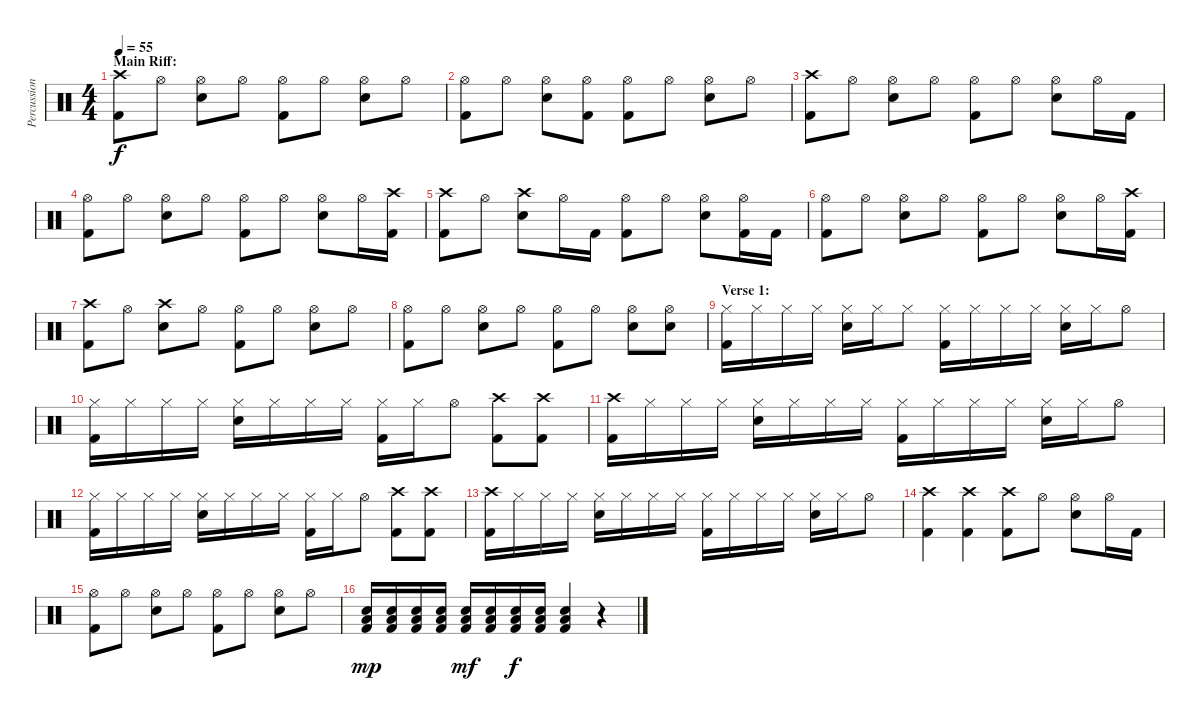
\track ("Percussion" "Percussion") {instrument percussion}
\staff {score}
\articulation defaults
\ts (4 4)
\section ("" "Main Riff:")
\tempo 55
\clef neutral
\ks c
("Crash high (hit)" "Kick (hit) 2").8{dy f} "Hi-Hat (open)".8 ("Hi-Hat (open)" "Snare (hit) 2").8 "Hi-Hat (open)".8 ("Hi-Hat (open)" "Kick (hit) 2").8 "Hi-Hat (open)".8 ("Hi-Hat (open)" "Snare (hit) 2").8 "Hi-Hat (open)".8 |
("Hi-Hat (open)" "Kick (hit) 2").8 "Hi-Hat (open)".8 ("Hi-Hat (open)" "Snare (hit) 2").8 ("Hi-Hat (open)" "Kick (hit) 2").8 ("Hi-Hat (open)" "Kick (hit) 2").8 "Hi-Hat (open)".8 ("Hi-Hat (open)" "Snare (hit) 2").8 "Hi-Hat (open)".8 |
("Crash high (hit)" "Kick (hit) 2").8 "Hi-Hat (open)".8 ("Hi-Hat (open)" "Snare (hit) 2").8 "Hi-Hat (open)".8 ("Hi-Hat (open)" "Kick (hit) 2").8 "Hi-Hat (open)".8 ("Hi-Hat (open)" "Snare (hit) 2").8 "Hi-Hat (open)".16 "Kick (hit) 2".16 |
("Hi-Hat (open)" "Kick (hit) 2").8 "Hi-Hat (open)".8 ("Hi-Hat (open)" "Snare (hit) 2").8 "Hi-Hat (open)".8 ("Hi-Hat (open)" "Kick (hit) 2").8 "Hi-Hat (open)".8 ("Hi-Hat (open)" "Snare (hit) 2").8 "Hi-Hat (open)".16 ("Crash high (hit)" "Kick (hit) 2").16 |
("Crash high (hit)" "Kick (hit) 2").8 "Hi-Hat (open)".8 ("Crash high (hit)" "Snare (hit) 2").8 "Hi-Hat (open)".16 "Kick (hit) 2".16 ("Hi-Hat (open)" "Kick (hit) 2").8 "Hi-Hat (open)".8 ("Hi-Hat (open)" "Snare (hit) 2").8 ("Hi-Hat (open)" "Kick (hit) 2").16 "Kick (hit) 2".16 |
("Hi-Hat (open)" "Kick (hit) 2").8 "Hi-Hat (open)".8 ("Hi-Hat (open)" "Snare (hit) 2").8 "Hi-Hat (open)".8 ("Hi-Hat (open)" "Kick (hit) 2").8 "Hi-Hat (open)".8 ("Hi-Hat (open)" "Snare (hit) 2").8 "Hi-Hat (open)".16 ("Crash high (hit)" "Kick (hit) 2").16 |
("Crash high (hit)" "Kick (hit) 2").8 "Hi-Hat (open)".8 ("Crash high (hit)" "Snare (hit) 2").8 "Hi-Hat (open)".8 ("Hi-Hat (open)" "Kick (hit) 2").8 "Hi-Hat (open)".8 ("Hi-Hat (open)" "Snare (hit) 2").8 "Hi-Hat (open)".8 |
("Hi-Hat (open)" "Kick (hit) 2").8 "Hi-Hat (open)".8 ("Hi-Hat (open)" "Snare (hit) 2").8 "Hi-Hat (open)".8 ("Hi-Hat (open)" "Kick (hit) 2").8 "Hi-Hat (open)".8 ("Hi-Hat (open)" "Snare (hit) 2").8 ("Hi-Hat (open)" "Snare (hit) 2").8 |
\section ("" "Verse 1:")
("Hi-Hat (closed)" "Kick (hit) 2").16 "Hi-Hat (closed)".16 "Hi-Hat (closed)".16 "Hi-Hat (closed)".16 ("Hi-Hat (closed)" "Snare (hit) 2").16 "Hi-Hat (closed)".16 "Hi-Hat (closed)".8 ("Hi-Hat (closed)" "Kick (hit) 2").16 "Hi-Hat (closed)".16 "Hi-Hat (closed)".16 "Hi-Hat (closed)".16 ("Hi-Hat (closed)" "Snare (hit) 2").16 "Hi-Hat (closed)".16 "Hi-Hat (open)".8 |
("Hi-Hat (closed)" "Kick (hit) 2").16 "Hi-Hat (closed)".16 "Hi-Hat (closed)".16 "Hi-Hat (closed)".16 ("Hi-Hat (closed)" "Snare (hit) 2").16 "Hi-Hat (closed)".16 "Hi-Hat (closed)".16 "Hi-Hat (closed)".16 ("Hi-Hat (closed)" "Kick (hit) 2").16 "Hi-Hat (closed)".16 "Hi-Hat (open)".8 ("Crash high (hit)" "Kick (hit) 2").8 ("Crash high (hit)" "Kick (hit) 2").8 |
("Crash high (hit)" "Kick (hit) 2").16 "Hi-Hat (closed)".16 "Hi-Hat (closed)".16 "Hi-Hat (closed)".16 ("Hi-Hat (closed)" "Snare (hit) 2").16 "Hi-Hat (closed)".16 "Hi-Hat (closed)".16 "Hi-Hat (closed)".16 ("Hi-Hat (closed)" "Kick (hit) 2").16 "Hi-Hat (closed)".16 "Hi-Hat (closed)".16 "Hi-Hat (closed)".16 ("Hi-Hat (closed)" "Snare (hit) 2").16 "Hi-Hat (closed)".16 "Hi-Hat (open)".8 |
("Hi-Hat (closed)" "Kick (hit) 2").16 "Hi-Hat (closed)".16 "Hi-Hat (closed)".16 "Hi-Hat (closed)".16 ("Hi-Hat (closed)" "Snare (hit) 2").16 "Hi-Hat (closed)".16 "Hi-Hat (closed)".16 "Hi-Hat (closed)".16 ("Hi-Hat (closed)" "Kick (hit) 2").16 "Hi-Hat (closed)".16 "Hi-Hat (open)".8 ("Crash high (hit)" "Kick (hit) 2").8 ("Crash high (hit)" "Kick (hit) 2").8 |
("Crash high (hit)" "Kick (hit) 2").16 "Hi-Hat (closed)".16 "Hi-Hat (closed)".16 "Hi-Hat (closed)".16 ("Hi-Hat (closed)" "Snare (hit) 2").16 "Hi-Hat (closed)".16 "Hi-Hat (closed)".16 "Hi-Hat (closed)".16 ("Hi-Hat (closed)" "Kick (hit) 2").16 "Hi-Hat (closed)".16 "Hi-Hat (closed)".16 "Hi-Hat (closed)".16 ("Hi-Hat (closed)" "Snare (hit) 2").16 "Hi-Hat (closed)".16 "Hi-Hat (open)".8 |
("Crash high (hit)" "Kick (hit) 2").4 ("Crash high (hit)" "Kick (hit) 2").4 ("Crash high (hit)" "Kick (hit) 2").8 "Hi-Hat (open)".8 ("Hi-Hat (open)" "Snare (hit) 2").8 "Hi-Hat (open)".16 "Kick (hit) 2".16 |
("Hi-Hat (open)" "Kick (hit) 2").8 "Hi-Hat (open)".8 ("Hi-Hat (open)" "Snare (hit) 2").8 "Hi-Hat (open)".8 ("Hi-Hat (open)" "Kick (hit) 2").8 "Hi-Hat (open)".8 ("Hi-Hat (open)" "Snare (hit) 2").8 "Hi-Hat (open)".8 |
("Snare (hit) 2" "Low Tom (hit)" "Kick (hit) 2").16{dy mp} ("Snare (hit) 2" "Low Tom (hit)" "Kick (hit) 2").16 ("Snare (hit) 2" "Low Tom (hit)" "Kick (hit) 2").16 ("Snare (hit) 2" "Low Tom (hit)" "Kick (hit) 2").16 ("Snare (hit) 2" "Low Tom (hit)" "Kick (hit) 2").16{dy mf} ("Snare (hit) 2" "Low Tom (hit)" "Kick (hit) 2").16 ("Snare (hit) 2" "Low Tom (hit)" "Kick (hit) 2").16{dy f} ("Snare (hit) 2" "Low Tom (hit)" "Kick (hit) 2").16 ("Snare (hit) 2" "Low Tom (hit)" "Kick (hit) 2").4 r.4
